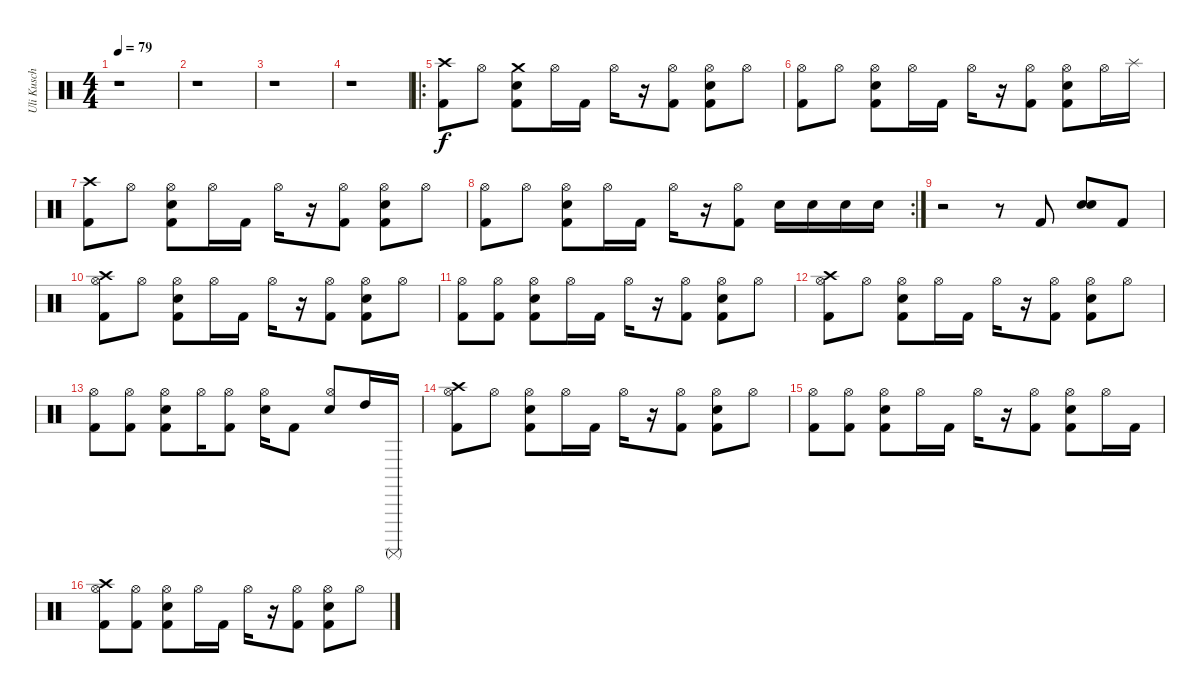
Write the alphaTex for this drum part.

\track ("Uli Kusch" "Uli Kusch") {instrument percussion}
\staff {score}
\articulation defaults
\ts (4 4)
\tempo 79
\clef neutral
\ks c
r.1{dy f} |
r.1 |
r.1 |
r.1 |
\ro
("Kick (hit) 2" "Crash high (hit)").8 "Hi-Hat (open)".8 ("Snare (hit) 2" "Kick (hit) 2" "Crash medium (hit)").8 "Hi-Hat (open)".16 "Kick (hit) 2".16 "Hi-Hat (open)".16 r.16 ("Kick (hit) 2" "Hi-Hat (open)").8 ("Kick (hit) 2" "Hi-Hat (open)" "Snare (hit) 2").8 "Hi-Hat (open)".8 |
("Kick (hit) 2" "Hi-Hat (open)").8 "Hi-Hat (open)".8 ("Snare (hit) 2" "Kick (hit) 2" "Hi-Hat (open)").8 "Hi-Hat (open)".16 "Kick (hit) 2".16 "Hi-Hat (open)".16 r.16 ("Kick (hit) 2" "Hi-Hat (open)").8 ("Kick (hit) 2" "Snare (hit) 2" "Hi-Hat (open)").8 "Hi-Hat (open)".16 "Splash (hit)".16 |
("Kick (hit) 2" "Crash high (hit)").8 "Hi-Hat (open)".8 ("Snare (hit) 2" "Kick (hit) 2" "Hi-Hat (open)").8 "Hi-Hat (open)".16 "Kick (hit) 2".16 "Hi-Hat (open)".16 r.16 ("Kick (hit) 2" "Hi-Hat (open)").8 ("Kick (hit) 2" "Snare (hit) 2" "Hi-Hat (open)").8 "Hi-Hat (open)".8 |
\rc 2
("Kick (hit) 2" "Hi-Hat (open)").8 "Hi-Hat (open)".8 ("Snare (hit) 2" "Kick (hit) 2" "Hi-Hat (open)").8 "Hi-Hat (open)".16 "Kick (hit) 2".16 "Hi-Hat (open)".16 r.16 ("Kick (hit) 2" "Hi-Hat (open)").8 "Snare (hit) 2".16 "Snare (hit) 2".16 "Snare (hit) 2".16 "Snare (hit) 2".16 |
r.2 r.8 "Kick (hit) 2".8 ("Snare (hit) 2" "Snare (hit) 2").8{bd 60} "Kick (hit) 2".8 |
("Kick (hit) 2" "Hi-Hat (open)" "Crash high (hit)").8 "Hi-Hat (open)".8 ("Snare (hit) 2" "Kick (hit) 2" "Hi-Hat (open)").8 "Hi-Hat (open)".16 "Kick (hit) 2".16 "Hi-Hat (open)".16 r.16 ("Kick (hit) 2" "Hi-Hat (open)").8 ("Kick (hit) 2" "Snare (hit) 2" "Hi-Hat (open)").8 "Hi-Hat (open)".8 |
("Kick (hit) 2" "Hi-Hat (open)").8 ("Hi-Hat (open)" "Kick (hit) 2").8 ("Snare (hit) 2" "Kick (hit) 2" "Hi-Hat (open)").8 "Hi-Hat (open)".16 "Kick (hit) 2".16 "Hi-Hat (open)".16 r.16 ("Kick (hit) 2" "Hi-Hat (open)").8 ("Kick (hit) 2" "Snare (hit) 2" "Hi-Hat (open)").8 "Hi-Hat (open)".8 |
("Kick (hit) 2" "Hi-Hat (open)" "Crash high (hit)").8 "Hi-Hat (open)".8 ("Snare (hit) 2" "Kick (hit) 2" "Hi-Hat (open)").8 "Hi-Hat (open)".16 "Kick (hit) 2".16 "Hi-Hat (open)".16 r.16 ("Kick (hit) 2" "Hi-Hat (open)").8 ("Kick (hit) 2" "Snare (hit) 2" "Hi-Hat (open)").8 "Hi-Hat (open)".8 |
("Kick (hit) 2" "Hi-Hat (open)").8 ("Hi-Hat (open)" "Kick (hit) 2").8 ("Snare (hit) 2" "Kick (hit) 2" "Hi-Hat (open)").8 "Hi-Hat (open)".16 ("Kick (hit) 2" "Hi-Hat (open)").8 ("Snare (hit) 2" "Hi-Hat (open)").16 "Kick (hit) 2".8 ("Snare (hit) 2" "Hi-Hat (open)").8 "High Tom (hit)".16 "Surdo (mute)".16 |
("Kick (hit) 2" "Hi-Hat (open)" "Crash high (hit)").8 "Hi-Hat (open)".8 ("Snare (hit) 2" "Kick (hit) 2" "Hi-Hat (open)").8 "Hi-Hat (open)".16 "Kick (hit) 2".16 "Hi-Hat (open)".16 r.16 ("Kick (hit) 2" "Hi-Hat (open)").8 ("Kick (hit) 2" "Snare (hit) 2" "Hi-Hat (open)").8 "Hi-Hat (open)".8 |
("Kick (hit) 2" "Hi-Hat (open)").8 ("Hi-Hat (open)" "Kick (hit) 2").8 ("Snare (hit) 2" "Kick (hit) 2" "Hi-Hat (open)").8 "Hi-Hat (open)".16 "Kick (hit) 2".16 "Hi-Hat (open)".16 r.16 ("Kick (hit) 2" "Hi-Hat (open)").8 ("Kick (hit) 2" "Snare (hit) 2" "Hi-Hat (open)").8 "Hi-Hat (open)".16 "Kick (hit) 2".16 |
("Kick (hit) 2" "Hi-Hat (open)" "Crash high (hit)").8 ("Hi-Hat (open)" "Kick (hit) 2").8 ("Snare (hit) 2" "Kick (hit) 2" "Hi-Hat (open)").8 "Hi-Hat (open)".16 "Kick (hit) 2".16 "Hi-Hat (open)".16 r.16 ("Kick (hit) 2" "Hi-Hat (open)").8 ("Kick (hit) 2" "Snare (hit) 2" "Hi-Hat (open)").8 "Hi-Hat (open)".8
